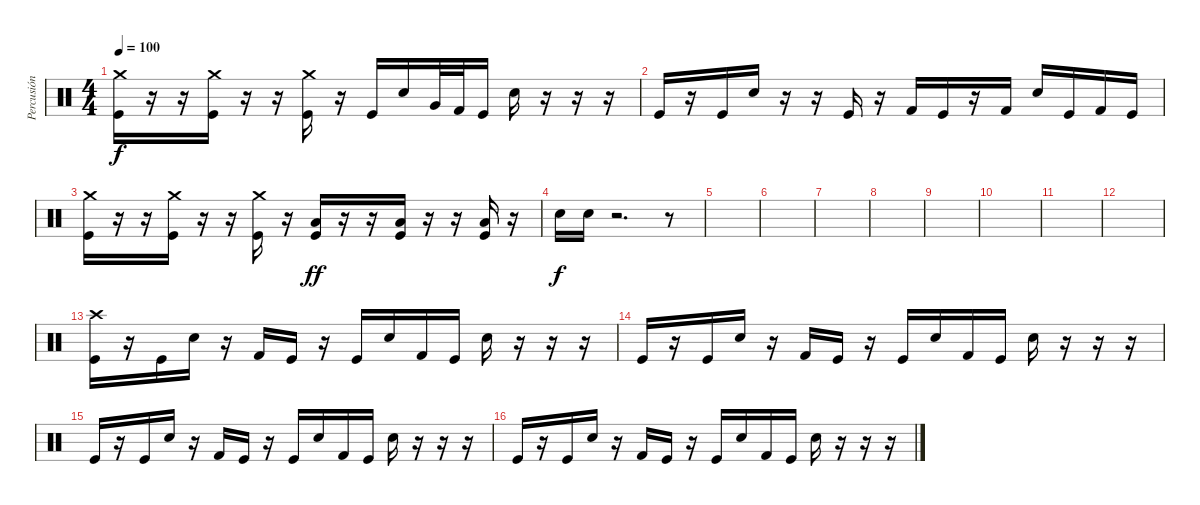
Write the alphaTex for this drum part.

\track ("Percusión" "Percusión") {instrument percussion}
\staff {score}
\articulation defaults
\ts (4 4)
\tempo 100
\clef neutral
\ks c
("Crash medium (hit)" "Kick (hit)").16{dy f} r.16 r.16 ("Crash medium (hit)" "Kick (hit)").16 r.16 r.16 ("Crash medium (hit)" "Kick (hit)").16 r.16 "Kick (hit)".16 "Electric Snare (hit)".16 "Very Low Tom (hit)".32 "Kick (hit) 2".32 "Kick (hit)".16 "Electric Snare (hit)".16 r.16 r.16 r.16 |
"Kick (hit)".16 r.16 "Kick (hit)".16 "Electric Snare (hit)".16 r.16 r.16 "Kick (hit)".16 r.16 "Kick (hit) 2".16 "Kick (hit)".16 r.16 "Kick (hit) 2".16 "Electric Snare (hit)".16 "Kick (hit)".16 "Kick (hit) 2".16 "Kick (hit)".16 |
("Crash medium (hit)" "Kick (hit)").16 r.16 r.16 ("Crash medium (hit)" "Kick (hit)").16 r.16 r.16 ("Crash medium (hit)" "Kick (hit)").16 r.16 ("Kick (hit)" "Low Floor Tom (hit)").16{dy ff} r.16 r.16 ("Kick (hit)" "Low Floor Tom (hit)").16 r.16 r.16 ("Kick (hit)" "Low Floor Tom (hit)").16 r.16 |
"Electric Snare (hit)".16{dy f} "Electric Snare (hit)".16 r.2{d} r.8 |
|
|
|
|
|
|
|
|
("Crash high (hit)" "Kick (hit)").16 r.16 "Kick (hit)".16 "Electric Snare (hit)".16 r.16 "Kick (hit) 2".16 "Kick (hit)".16 r.16 "Kick (hit)".16 "Electric Snare (hit)".16 "Kick (hit) 2".16 "Kick (hit)".16 "Electric Snare (hit)".16 r.16 r.16 r.16 |
"Kick (hit)".16 r.16 "Kick (hit)".16 "Electric Snare (hit)".16 r.16 "Kick (hit) 2".16 "Kick (hit)".16 r.16 "Kick (hit)".16 "Electric Snare (hit)".16 "Kick (hit) 2".16 "Kick (hit)".16 "Electric Snare (hit)".16 r.16 r.16 r.16 |
"Kick (hit)".16 r.16 "Kick (hit)".16 "Electric Snare (hit)".16 r.16 "Kick (hit) 2".16 "Kick (hit)".16 r.16 "Kick (hit)".16 "Electric Snare (hit)".16 "Kick (hit) 2".16 "Kick (hit)".16 "Electric Snare (hit)".16 r.16 r.16 r.16 |
"Kick (hit)".16 r.16 "Kick (hit)".16 "Electric Snare (hit)".16 r.16 "Kick (hit) 2".16 "Kick (hit)".16 r.16 "Kick (hit)".16 "Electric Snare (hit)".16 "Kick (hit) 2".16 "Kick (hit)".16 "Electric Snare (hit)".16 r.16 r.16 r.16
